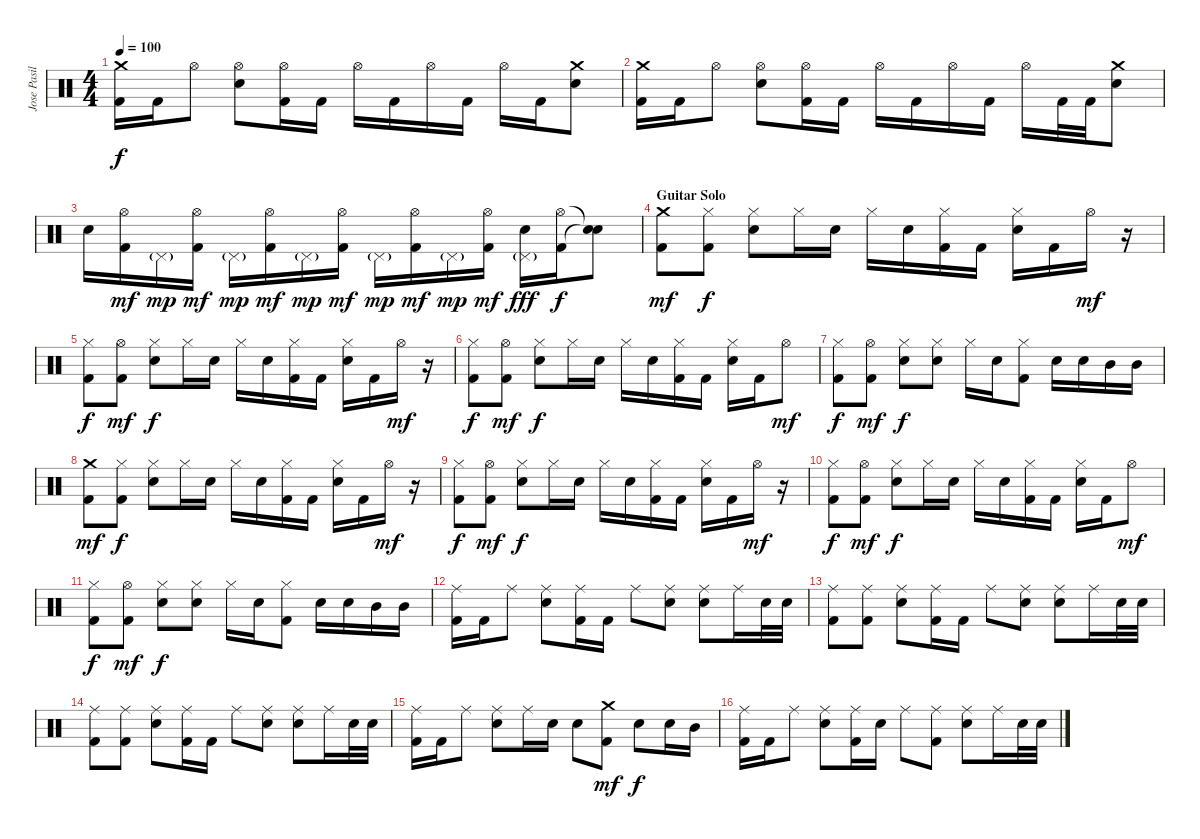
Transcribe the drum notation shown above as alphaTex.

\track ("Jose Pasillas - Drums" "Jose Pasil") {instrument percussion}
\staff {score}
\articulation defaults
\ts (4 4)
\tempo 100
\clef neutral
\ks c
("Crash medium (hit)" "Kick (hit) 2").16{dy f} "Kick (hit) 2".16 "Hi-Hat (open)".8 ("Hi-Hat (open)" "Electric Snare (hit)").8 ("Hi-Hat (open)" "Kick (hit) 2").16 "Kick (hit) 2".16 "Hi-Hat (open)".16 "Kick (hit) 2".16 "Hi-Hat (open)".16 "Kick (hit) 2".16 "Hi-Hat (open)".16 "Kick (hit) 2".16 ("Crash medium (hit)" "Electric Snare (hit)").8 |
("Crash medium (hit)" "Kick (hit) 2").16 "Kick (hit) 2".16 "Hi-Hat (open)".8 ("Hi-Hat (open)" "Electric Snare (hit)").8 ("Hi-Hat (open)" "Kick (hit) 2").16 "Kick (hit) 2".16 "Hi-Hat (open)".16 "Kick (hit) 2".16 "Hi-Hat (open)".16 "Kick (hit) 2".16 "Hi-Hat (open)".16 "Kick (hit) 2".32 "Kick (hit) 2".32 ("Crash medium (hit)" "Electric Snare (hit)").8 |
"Electric Snare (hit)".16 ("Hi-Hat (open)" "Kick (hit) 2").16{dy mf} "Pedal Hi-Hat (hit)"{g}.16{dy mp} ("Hi-Hat (open)" "Kick (hit) 2").16{dy mf} "Pedal Hi-Hat (hit)"{g}.16{dy mp} ("Hi-Hat (open)" "Kick (hit) 2").16{dy mf} "Pedal Hi-Hat (hit)"{g}.16{dy mp} ("Hi-Hat (open)" "Kick (hit) 2").16{dy mf} "Pedal Hi-Hat (hit)"{g}.16{dy mp} ("Hi-Hat (open)" "Kick (hit) 2").16{dy mf} "Pedal Hi-Hat (hit)"{g}.16{dy mp} ("Hi-Hat (open)" "Kick (hit) 2").16{dy mf} ("Pedal Hi-Hat (hit)"{g} "Electric Snare (hit)").16{dy fff} ("Hi-Hat (open)" "Kick (hit) 2").16{dy f} ("Snare (hit)"{t} "Snare (hit)"{t}).8 |
\section ("" "Guitar Solo")
("Crash medium (hit)" "Kick (hit) 2").8{dy mf} ("Hi-Hat (closed)" "Kick (hit) 2").8{dy f} ("Hi-Hat (closed)" "Electric Snare (hit)").8 "Hi-Hat (closed)".16 "Electric Snare (hit)".16 "Hi-Hat (closed)".16 "Electric Snare (hit)".16 ("Hi-Hat (closed)" "Kick (hit) 2").16 "Kick (hit) 2".16 ("Hi-Hat (closed)" "Electric Snare (hit)").16 "Kick (hit) 2".16 "Hi-Hat (open)".16{dy mf} r.16 |
("Hi-Hat (closed)" "Kick (hit) 2").8{dy f} ("Hi-Hat (open)" "Kick (hit) 2").8{dy mf} ("Hi-Hat (closed)" "Electric Snare (hit)").8{dy f} "Hi-Hat (closed)".16 "Electric Snare (hit)".16 "Hi-Hat (closed)".16 "Electric Snare (hit)".16 ("Hi-Hat (closed)" "Kick (hit) 2").16 "Kick (hit) 2".16 ("Hi-Hat (closed)" "Electric Snare (hit)").16 "Kick (hit) 2".16 "Hi-Hat (open)".16{dy mf} r.16 |
("Hi-Hat (closed)" "Kick (hit) 2").8{dy f} ("Hi-Hat (open)" "Kick (hit) 2").8{dy mf} ("Hi-Hat (closed)" "Electric Snare (hit)").8{dy f} "Hi-Hat (closed)".16 "Electric Snare (hit)".16 "Hi-Hat (closed)".16 "Electric Snare (hit)".16 ("Hi-Hat (closed)" "Kick (hit) 2").16 "Kick (hit) 2".16 ("Hi-Hat (closed)" "Electric Snare (hit)").16 "Kick (hit) 2".16 "Hi-Hat (open)".8{dy mf} |
("Hi-Hat (closed)" "Kick (hit) 2").8{dy f} ("Hi-Hat (open)" "Kick (hit) 2").8{dy mf} ("Hi-Hat (closed)" "Electric Snare (hit)").8{dy f} ("Hi-Hat (closed)" "Electric Snare (hit)").8 "Hi-Hat (closed)".16 "Electric Snare (hit)".16 ("Hi-Hat (closed)" "Kick (hit) 2").8 "Electric Snare (hit)".16 "Electric Snare (hit)".16 "Mid Tom (hit)".16 "Mid Tom (hit)".16 |
("Crash medium (hit)" "Kick (hit) 2").8{dy mf} ("Hi-Hat (closed)" "Kick (hit) 2").8{dy f} ("Hi-Hat (closed)" "Electric Snare (hit)").8 "Hi-Hat (closed)".16 "Electric Snare (hit)".16 "Hi-Hat (closed)".16 "Electric Snare (hit)".16 ("Hi-Hat (closed)" "Kick (hit) 2").16 "Kick (hit) 2".16 ("Hi-Hat (closed)" "Electric Snare (hit)").16 "Kick (hit) 2".16 "Hi-Hat (open)".16{dy mf} r.16 |
("Hi-Hat (closed)" "Kick (hit) 2").8{dy f} ("Hi-Hat (open)" "Kick (hit) 2").8{dy mf} ("Hi-Hat (closed)" "Electric Snare (hit)").8{dy f} "Hi-Hat (closed)".16 "Electric Snare (hit)".16 "Hi-Hat (closed)".16 "Electric Snare (hit)".16 ("Hi-Hat (closed)" "Kick (hit) 2").16 "Kick (hit) 2".16 ("Hi-Hat (closed)" "Electric Snare (hit)").16 "Kick (hit) 2".16 "Hi-Hat (open)".16{dy mf} r.16 |
("Hi-Hat (closed)" "Kick (hit) 2").8{dy f} ("Hi-Hat (open)" "Kick (hit) 2").8{dy mf} ("Hi-Hat (closed)" "Electric Snare (hit)").8{dy f} "Hi-Hat (closed)".16 "Electric Snare (hit)".16 "Hi-Hat (closed)".16 "Electric Snare (hit)".16 ("Hi-Hat (closed)" "Kick (hit) 2").16 "Kick (hit) 2".16 ("Hi-Hat (closed)" "Electric Snare (hit)").16 "Kick (hit) 2".16 "Hi-Hat (open)".8{dy mf} |
("Hi-Hat (closed)" "Kick (hit) 2").8{dy f} ("Hi-Hat (open)" "Kick (hit) 2").8{dy mf} ("Hi-Hat (closed)" "Electric Snare (hit)").8{dy f} ("Hi-Hat (closed)" "Electric Snare (hit)").8 "Hi-Hat (closed)".16 "Electric Snare (hit)".16 ("Hi-Hat (closed)" "Kick (hit) 2").8 "Electric Snare (hit)".16 "Electric Snare (hit)".16 "Mid Tom (hit)".16 "Mid Tom (hit)".16 |
("Ride (middle)" "Kick (hit) 2").16 "Kick (hit) 2".16 "Ride (middle)".8 ("Ride (middle)" "Electric Snare (hit)").8 ("Ride (middle)" "Kick (hit) 2").16 "Kick (hit) 2".16 "Ride (middle)".8 ("Ride (middle)" "Electric Snare (hit)").8 ("Ride (middle)" "Electric Snare (hit)").8 "Ride (middle)".16 "Electric Snare (hit)".32 "Electric Snare (hit)".32 |
("Ride (middle)" "Kick (hit) 2").8 ("Ride (middle)" "Kick (hit) 2").8 ("Ride (middle)" "Electric Snare (hit)").8 ("Ride (middle)" "Kick (hit) 2").16 "Kick (hit) 2".16 "Ride (middle)".8 ("Ride (middle)" "Electric Snare (hit)").8 ("Ride (middle)" "Electric Snare (hit)").8 "Ride (middle)".16 "Electric Snare (hit)".32 "Electric Snare (hit)".32 |
("Ride (middle)" "Kick (hit) 2").8 ("Ride (middle)" "Kick (hit) 2").8 ("Ride (middle)" "Electric Snare (hit)").8 ("Ride (middle)" "Kick (hit) 2").16 "Kick (hit) 2".16 "Ride (middle)".8 ("Ride (middle)" "Electric Snare (hit)").8 ("Ride (middle)" "Electric Snare (hit)").8 "Ride (middle)".16 "Electric Snare (hit)".32 "Electric Snare (hit)".32 |
("Ride (middle)" "Kick (hit) 2").16 "Kick (hit) 2".16 "Ride (middle)".8 ("Ride (middle)" "Electric Snare (hit)").8 "Ride (middle)".16 "Electric Snare (hit)".16 "Electric Snare (hit)".8 ("Crash medium (hit)" "Kick (hit) 2").8{dy mf} "Electric Snare (hit)".8{dy f} "Electric Snare (hit)".16 "Mid Tom (hit)".16 |
("Ride (middle)" "Kick (hit) 2").16 "Kick (hit) 2".16 "Ride (middle)".8 ("Ride (middle)" "Electric Snare (hit)").8 ("Ride (middle)" "Kick (hit) 2").16 "Electric Snare (hit)".16 "Ride (middle)".8 ("Ride (middle)" "Kick (hit) 2").8 ("Ride (middle)" "Electric Snare (hit)").8 "Ride (middle)".16 "Electric Snare (hit)".32 "Electric Snare (hit)".32
